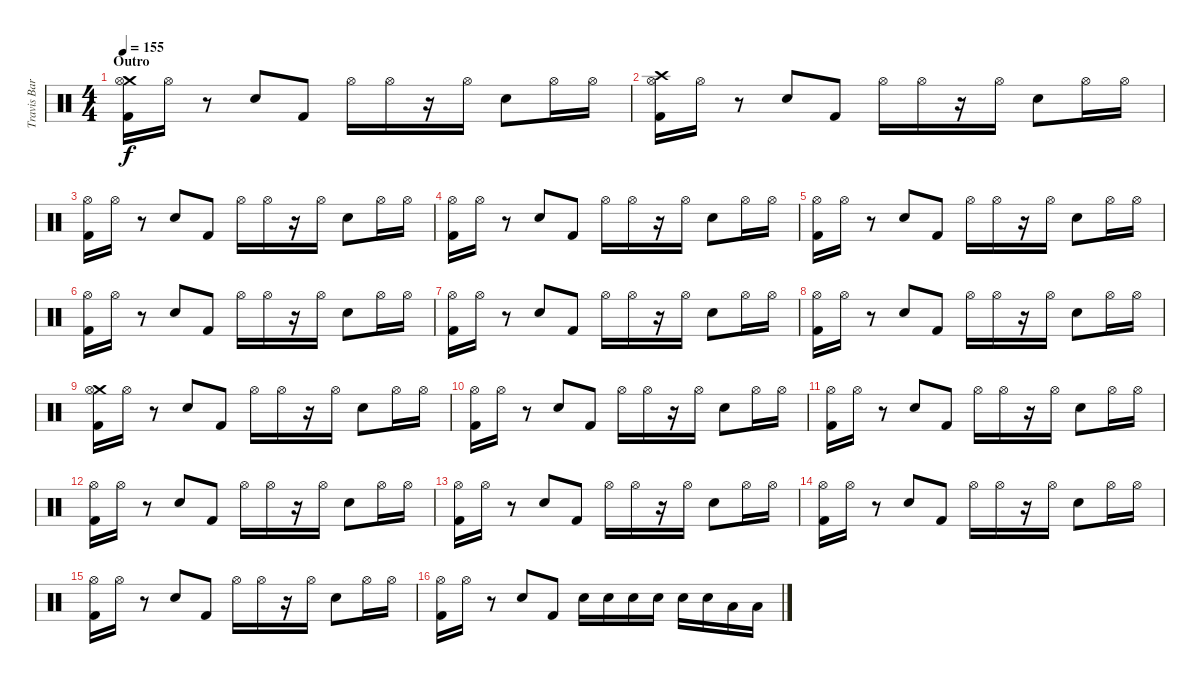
\track ("Travis Barker Drums" "Travis Bar") {mute instrument percussion}
\staff {score}
\articulation defaults
\ts (4 4)
\section ("" "Outro")
\tempo 155
\clef neutral
\ks c
("Crash medium (hit)" "Hi-Hat (open)" "Kick (hit) 2").16{dy f} "Hi-Hat (open)".16 r.8 "Electric Snare (hit)".8 "Kick (hit) 2".8 "Hi-Hat (open)".16 "Hi-Hat (open)".16 r.16 "Hi-Hat (open)".16 "Electric Snare (hit)".8 "Hi-Hat (open)".16 "Hi-Hat (open)".16 |
("Crash high (hit)" "Hi-Hat (open)" "Kick (hit) 2").16 "Hi-Hat (open)".16 r.8 "Electric Snare (hit)".8 "Kick (hit) 2".8 "Hi-Hat (open)".16 "Hi-Hat (open)".16 r.16 "Hi-Hat (open)".16 "Electric Snare (hit)".8 "Hi-Hat (open)".16 "Hi-Hat (open)".16 |
("Hi-Hat (open)" "Kick (hit) 2").16 "Hi-Hat (open)".16 r.8 "Electric Snare (hit)".8 "Kick (hit) 2".8 "Hi-Hat (open)".16 "Hi-Hat (open)".16 r.16 "Hi-Hat (open)".16 "Electric Snare (hit)".8 "Hi-Hat (open)".16 "Hi-Hat (open)".16 |
("Hi-Hat (open)" "Kick (hit) 2").16 "Hi-Hat (open)".16 r.8 "Electric Snare (hit)".8 "Kick (hit) 2".8 "Hi-Hat (open)".16 "Hi-Hat (open)".16 r.16 "Hi-Hat (open)".16 "Electric Snare (hit)".8 "Hi-Hat (open)".16 "Hi-Hat (open)".16 |
("Hi-Hat (open)" "Kick (hit) 2").16 "Hi-Hat (open)".16 r.8 "Electric Snare (hit)".8 "Kick (hit) 2".8 "Hi-Hat (open)".16 "Hi-Hat (open)".16 r.16 "Hi-Hat (open)".16 "Electric Snare (hit)".8 "Hi-Hat (open)".16 "Hi-Hat (open)".16 |
("Hi-Hat (open)" "Kick (hit) 2").16 "Hi-Hat (open)".16 r.8 "Electric Snare (hit)".8 "Kick (hit) 2".8 "Hi-Hat (open)".16 "Hi-Hat (open)".16 r.16 "Hi-Hat (open)".16 "Electric Snare (hit)".8 "Hi-Hat (open)".16 "Hi-Hat (open)".16 |
("Hi-Hat (open)" "Kick (hit) 2").16 "Hi-Hat (open)".16 r.8 "Electric Snare (hit)".8 "Kick (hit) 2".8 "Hi-Hat (open)".16 "Hi-Hat (open)".16 r.16 "Hi-Hat (open)".16 "Electric Snare (hit)".8 "Hi-Hat (open)".16 "Hi-Hat (open)".16 |
("Hi-Hat (open)" "Kick (hit) 2").16 "Hi-Hat (open)".16 r.8 "Electric Snare (hit)".8 "Kick (hit) 2".8 "Hi-Hat (open)".16 "Hi-Hat (open)".16 r.16 "Hi-Hat (open)".16 "Electric Snare (hit)".8 "Hi-Hat (open)".16 "Hi-Hat (open)".16 |
("Crash medium (hit)" "Hi-Hat (open)" "Kick (hit) 2").16 "Hi-Hat (open)".16 r.8 "Electric Snare (hit)".8 "Kick (hit) 2".8 "Hi-Hat (open)".16 "Hi-Hat (open)".16 r.16 "Hi-Hat (open)".16 "Electric Snare (hit)".8 "Hi-Hat (open)".16 "Hi-Hat (open)".16 |
("Hi-Hat (open)" "Kick (hit) 2").16 "Hi-Hat (open)".16 r.8 "Electric Snare (hit)".8 "Kick (hit) 2".8 "Hi-Hat (open)".16 "Hi-Hat (open)".16 r.16 "Hi-Hat (open)".16 "Electric Snare (hit)".8 "Hi-Hat (open)".16 "Hi-Hat (open)".16 |
("Hi-Hat (open)" "Kick (hit) 2").16 "Hi-Hat (open)".16 r.8 "Electric Snare (hit)".8 "Kick (hit) 2".8 "Hi-Hat (open)".16 "Hi-Hat (open)".16 r.16 "Hi-Hat (open)".16 "Electric Snare (hit)".8 "Hi-Hat (open)".16 "Hi-Hat (open)".16 |
("Hi-Hat (open)" "Kick (hit) 2").16 "Hi-Hat (open)".16 r.8 "Electric Snare (hit)".8 "Kick (hit) 2".8 "Hi-Hat (open)".16 "Hi-Hat (open)".16 r.16 "Hi-Hat (open)".16 "Electric Snare (hit)".8 "Hi-Hat (open)".16 "Hi-Hat (open)".16 |
("Hi-Hat (open)" "Kick (hit) 2").16 "Hi-Hat (open)".16 r.8 "Electric Snare (hit)".8 "Kick (hit) 2".8 "Hi-Hat (open)".16 "Hi-Hat (open)".16 r.16 "Hi-Hat (open)".16 "Electric Snare (hit)".8 "Hi-Hat (open)".16 "Hi-Hat (open)".16 |
("Hi-Hat (open)" "Kick (hit) 2").16 "Hi-Hat (open)".16 r.8 "Electric Snare (hit)".8 "Kick (hit) 2".8 "Hi-Hat (open)".16 "Hi-Hat (open)".16 r.16 "Hi-Hat (open)".16 "Electric Snare (hit)".8 "Hi-Hat (open)".16 "Hi-Hat (open)".16 |
("Hi-Hat (open)" "Kick (hit) 2").16 "Hi-Hat (open)".16 r.8 "Electric Snare (hit)".8 "Kick (hit) 2".8 "Hi-Hat (open)".16 "Hi-Hat (open)".16 r.16 "Hi-Hat (open)".16 "Electric Snare (hit)".8 "Hi-Hat (open)".16 "Hi-Hat (open)".16 |
("Hi-Hat (open)" "Kick (hit) 2").16 "Hi-Hat (open)".16 r.8 "Electric Snare (hit)".8 "Kick (hit) 2".8 "Electric Snare (hit)".16 "Electric Snare (hit)".16 "Electric Snare (hit)".16 "Electric Snare (hit)".16 "Electric Snare (hit)".16 "Electric Snare (hit)".16 "Low Tom (hit)".16 "Low Tom (hit)".16
